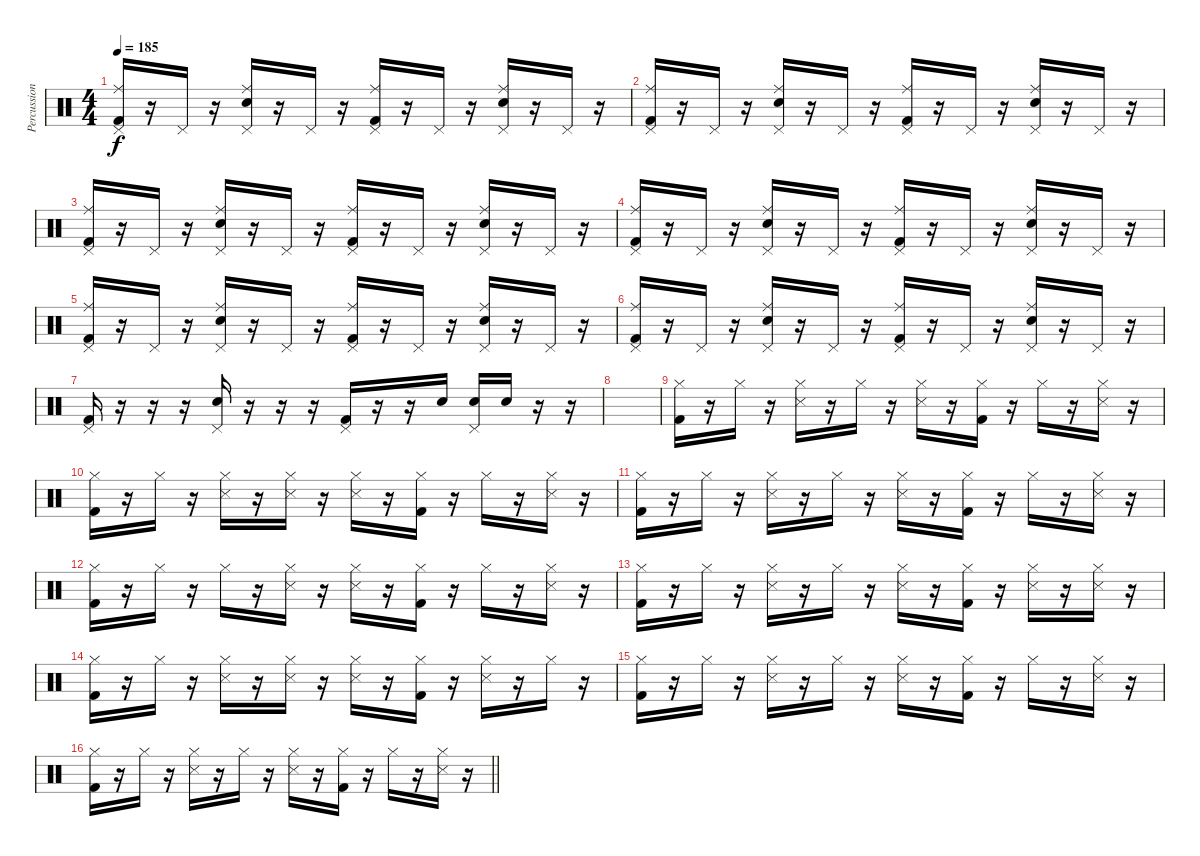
\track ("Percussion" "Percussion") {instrument percussion}
\staff {score}
\articulation defaults
\ts (4 4)
\tempo 185
\clef neutral
\ks c
("Ride (middle)" "Pedal Hi-Hat (hit)" "Kick (hit) 2").16{dy f} r.16 "Pedal Hi-Hat (hit)".16 r.16 ("Ride (middle)" "Pedal Hi-Hat (hit)" "Snare (hit) 2").16 r.16 "Pedal Hi-Hat (hit)".16 r.16 ("Ride (middle)" "Pedal Hi-Hat (hit)" "Kick (hit) 2").16 r.16 "Pedal Hi-Hat (hit)".16 r.16 ("Ride (middle)" "Pedal Hi-Hat (hit)" "Snare (hit) 2").16 r.16 "Pedal Hi-Hat (hit)".16 r.16 |
("Ride (middle)" "Pedal Hi-Hat (hit)" "Kick (hit) 2").16 r.16 "Pedal Hi-Hat (hit)".16 r.16 ("Ride (middle)" "Pedal Hi-Hat (hit)" "Snare (hit) 2").16 r.16 "Pedal Hi-Hat (hit)".16 r.16 ("Ride (middle)" "Pedal Hi-Hat (hit)" "Kick (hit) 2").16 r.16 "Pedal Hi-Hat (hit)".16 r.16 ("Ride (middle)" "Pedal Hi-Hat (hit)" "Snare (hit) 2").16 r.16 "Pedal Hi-Hat (hit)".16 r.16 |
("Ride (middle)" "Pedal Hi-Hat (hit)" "Kick (hit) 2").16 r.16 "Pedal Hi-Hat (hit)".16 r.16 ("Ride (middle)" "Pedal Hi-Hat (hit)" "Snare (hit) 2").16 r.16 "Pedal Hi-Hat (hit)".16 r.16 ("Ride (middle)" "Pedal Hi-Hat (hit)" "Kick (hit) 2").16 r.16 "Pedal Hi-Hat (hit)".16 r.16 ("Ride (middle)" "Pedal Hi-Hat (hit)" "Snare (hit) 2").16 r.16 "Pedal Hi-Hat (hit)".16 r.16 |
("Ride (middle)" "Pedal Hi-Hat (hit)" "Kick (hit) 2").16 r.16 "Pedal Hi-Hat (hit)".16 r.16 ("Ride (middle)" "Pedal Hi-Hat (hit)" "Snare (hit) 2").16 r.16 "Pedal Hi-Hat (hit)".16 r.16 ("Ride (middle)" "Pedal Hi-Hat (hit)" "Kick (hit) 2").16 r.16 "Pedal Hi-Hat (hit)".16 r.16 ("Ride (middle)" "Pedal Hi-Hat (hit)" "Snare (hit) 2").16 r.16 "Pedal Hi-Hat (hit)".16 r.16 |
("Ride (middle)" "Pedal Hi-Hat (hit)" "Kick (hit) 2").16 r.16 "Pedal Hi-Hat (hit)".16 r.16 ("Ride (middle)" "Pedal Hi-Hat (hit)" "Snare (hit) 2").16 r.16 "Pedal Hi-Hat (hit)".16 r.16 ("Ride (middle)" "Pedal Hi-Hat (hit)" "Kick (hit) 2").16 r.16 "Pedal Hi-Hat (hit)".16 r.16 ("Ride (middle)" "Pedal Hi-Hat (hit)" "Snare (hit) 2").16 r.16 "Pedal Hi-Hat (hit)".16 r.16 |
("Ride (middle)" "Pedal Hi-Hat (hit)" "Kick (hit) 2").16 r.16 "Pedal Hi-Hat (hit)".16 r.16 ("Ride (middle)" "Pedal Hi-Hat (hit)" "Snare (hit) 2").16 r.16 "Pedal Hi-Hat (hit)".16 r.16 ("Ride (middle)" "Pedal Hi-Hat (hit)" "Kick (hit) 2").16 r.16 "Pedal Hi-Hat (hit)".16 r.16 ("Ride (middle)" "Pedal Hi-Hat (hit)" "Snare (hit) 2").16 r.16 "Pedal Hi-Hat (hit)".16 r.16 |
("Pedal Hi-Hat (hit)" "Kick (hit) 2").16 r.16 r.16 r.16 ("Pedal Hi-Hat (hit)" "Snare (hit) 2").16 r.16 r.16 r.16 ("Pedal Hi-Hat (hit)" "Kick (hit) 2").16 r.16 r.16 "Snare (hit) 2".16 ("Pedal Hi-Hat (hit)" "Snare (hit) 2").16 "Snare (hit) 2".16 r.16 r.16 |
|
("Hi-Hat (closed)" "Kick (hit) 2").16 r.16 "Hi-Hat (closed)".16 r.16 ("Hi-Hat (closed)" "Metronome (hit)").16 r.16 "Hi-Hat (closed)".16 r.16 ("Hi-Hat (closed)" "Metronome (hit)").16 r.16 ("Hi-Hat (closed)" "Kick (hit) 2").16 r.16 "Hi-Hat (closed)".16 r.16 ("Hi-Hat (closed)" "Metronome (hit)").16 r.16 |
("Hi-Hat (closed)" "Kick (hit) 2").16 r.16 "Hi-Hat (closed)".16 r.16 ("Hi-Hat (closed)" "Metronome (hit)").16 r.16 ("Hi-Hat (closed)" "Metronome (hit)").16 r.16 ("Hi-Hat (closed)" "Metronome (hit)").16 r.16 ("Hi-Hat (closed)" "Kick (hit) 2").16 r.16 "Hi-Hat (closed)".16 r.16 ("Hi-Hat (closed)" "Metronome (hit)").16 r.16 |
("Hi-Hat (closed)" "Kick (hit) 2").16 r.16 "Hi-Hat (closed)".16 r.16 ("Hi-Hat (closed)" "Metronome (hit)").16 r.16 "Hi-Hat (closed)".16 r.16 ("Hi-Hat (closed)" "Metronome (hit)").16 r.16 ("Hi-Hat (closed)" "Kick (hit) 2").16 r.16 "Hi-Hat (closed)".16 r.16 ("Hi-Hat (closed)" "Metronome (hit)").16 r.16 |
("Hi-Hat (closed)" "Kick (hit) 2").16 r.16 "Hi-Hat (closed)".16 r.16 "Hi-Hat (closed)".16 r.16 ("Hi-Hat (closed)" "Metronome (hit)").16 r.16 ("Hi-Hat (closed)" "Metronome (hit)").16 r.16 ("Hi-Hat (closed)" "Kick (hit) 2").16 r.16 "Hi-Hat (closed)".16 r.16 ("Hi-Hat (closed)" "Metronome (hit)").16 r.16 |
("Hi-Hat (closed)" "Kick (hit) 2").16 r.16 "Hi-Hat (closed)".16 r.16 ("Hi-Hat (closed)" "Metronome (hit)").16 r.16 "Hi-Hat (closed)".16 r.16 ("Hi-Hat (closed)" "Metronome (hit)").16 r.16 ("Hi-Hat (closed)" "Kick (hit) 2").16 r.16 ("Hi-Hat (closed)" "Metronome (hit)").16 r.16 ("Hi-Hat (closed)" "Metronome (hit)").16 r.16 |
("Hi-Hat (closed)" "Kick (hit) 2").16 r.16 "Hi-Hat (closed)".16 r.16 ("Hi-Hat (closed)" "Metronome (hit)").16 r.16 ("Hi-Hat (closed)" "Metronome (hit)").16 r.16 ("Hi-Hat (closed)" "Metronome (hit)").16 r.16 ("Hi-Hat (closed)" "Kick (hit) 2").16 r.16 ("Hi-Hat (closed)" "Metronome (hit)").16 r.16 "Hi-Hat (closed)".16 r.16 |
("Hi-Hat (closed)" "Kick (hit) 2").16 r.16 "Hi-Hat (closed)".16 r.16 ("Hi-Hat (closed)" "Metronome (hit)").16 r.16 "Hi-Hat (closed)".16 r.16 ("Hi-Hat (closed)" "Metronome (hit)").16 r.16 ("Hi-Hat (closed)" "Kick (hit) 2").16 r.16 "Hi-Hat (closed)".16 r.16 ("Hi-Hat (closed)" "Metronome (hit)").16 r.16 |
\barLineRight lightlight
("Hi-Hat (closed)" "Kick (hit) 2").16 r.16 "Hi-Hat (closed)".16 r.16 ("Hi-Hat (closed)" "Metronome (hit)").16 r.16 "Hi-Hat (closed)".16 r.16 ("Hi-Hat (closed)" "Metronome (hit)").16 r.16 ("Hi-Hat (closed)" "Kick (hit) 2").16 r.16 "Hi-Hat (closed)".16 r.16 ("Hi-Hat (closed)" "Metronome (hit)").16 r.16
